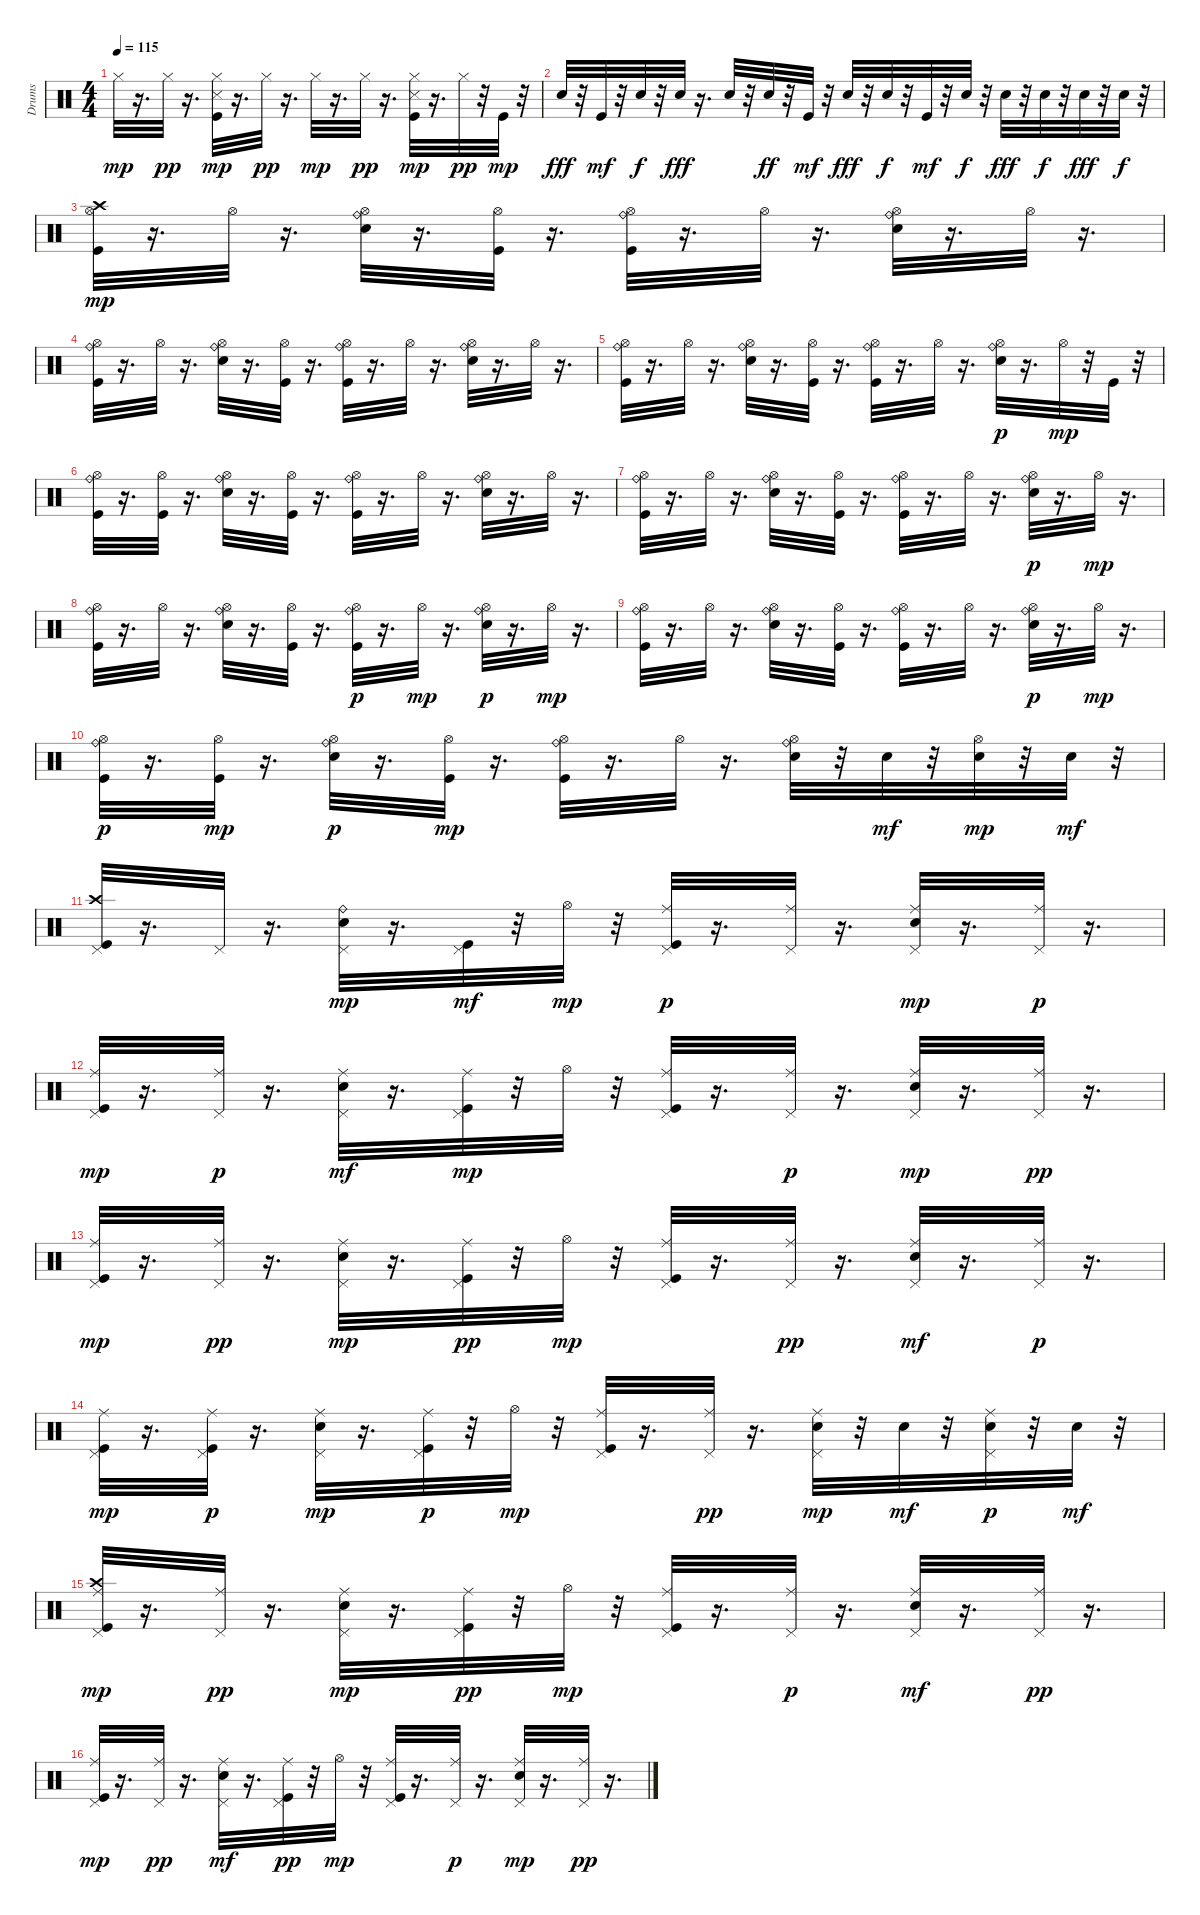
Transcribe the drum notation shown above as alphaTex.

\track ("Drums" "Drums") {instrument percussion}
\staff {score}
\articulation defaults
\ts (4 4)
\tempo 115
\clef neutral
\ks c "Hi-Hat (closed)".32{dy mp}
r.16{d} "Hi-Hat (closed)".32{dy pp} r.16{d} ("Kick (hit)" "Snare (side stick) 3" "Hi-Hat (closed)").32{dy mp} r.16{d} "Hi-Hat (closed)".32{dy pp} r.16{d} "Hi-Hat (closed)".32{dy mp} r.16{d} "Hi-Hat (closed)".32{dy pp} r.16{d} ("Kick (hit)" "Snare (side stick) 3" "Hi-Hat (closed)").32{dy mp} r.16{d} "Hi-Hat (closed)".32{dy pp} r.32 "Kick (hit)".32{dy mp} r.32 |
"Electric Snare (hit)".32{dy fff} r.32 "Kick (hit)".32{dy mf} r.32 "Electric Snare (hit)".32{dy f} r.32 "Electric Snare (hit)".32{dy fff} r.16{d} "Electric Snare (hit)".32 r.32 "Electric Snare (hit)".32{dy ff} r.32 "Kick (hit)".32{dy mf} r.32 "Electric Snare (hit)".32{dy fff} r.32 "Electric Snare (hit)".32{dy f} r.32 "Kick (hit)".32{dy mf} r.32 "Electric Snare (hit)".32{dy f} r.32 "Electric Snare (hit)".32{dy fff} r.32 "Electric Snare (hit)".32{dy f} r.32 "Electric Snare (hit)".32{dy fff} r.32 "Electric Snare (hit)".32{dy f} r.32 |
("Kick (hit)" "Hi-Hat (open)" "Crash high (hit)").32{dy mp} r.16{d} "Hi-Hat (open)".32 r.16{d} ("Electric Snare (hit)" "Hi-Hat (open)" "Ride (bell)").32 r.16{d} ("Kick (hit)" "Hi-Hat (open)").32 r.16{d} ("Kick (hit)" "Hi-Hat (open)" "Ride (bell)").32 r.16{d} "Hi-Hat (open)".32 r.16{d} ("Electric Snare (hit)" "Hi-Hat (open)" "Ride (bell)").32 r.16{d} "Hi-Hat (open)".32 r.16{d} |
("Kick (hit)" "Hi-Hat (open)" "Ride (bell)").32 r.16{d} "Hi-Hat (open)".32 r.16{d} ("Electric Snare (hit)" "Hi-Hat (open)" "Ride (bell)").32 r.16{d} ("Kick (hit)" "Hi-Hat (open)").32 r.16{d} ("Kick (hit)" "Hi-Hat (open)" "Ride (bell)").32 r.16{d} "Hi-Hat (open)".32 r.16{d} ("Electric Snare (hit)" "Hi-Hat (open)" "Ride (bell)").32 r.16{d} "Hi-Hat (open)".32 r.16{d} |
("Kick (hit)" "Hi-Hat (open)" "Ride (bell)").32 r.16{d} "Hi-Hat (open)".32 r.16{d} ("Electric Snare (hit)" "Hi-Hat (open)" "Ride (bell)").32 r.16{d} ("Kick (hit)" "Hi-Hat (open)").32 r.16{d} ("Kick (hit)" "Hi-Hat (open)" "Ride (bell)").32 r.16{d} "Hi-Hat (open)".32 r.16{d} ("Electric Snare (hit)" "Hi-Hat (open)" "Ride (bell)").32{dy p} r.16{d} "Hi-Hat (open)".32{dy mp} r.32 "Kick (hit)".32 r.32 |
("Kick (hit)" "Hi-Hat (open)" "Ride (bell)").32 r.16{d} ("Kick (hit)" "Hi-Hat (open)").32 r.16{d} ("Electric Snare (hit)" "Hi-Hat (open)" "Ride (bell)").32 r.16{d} ("Kick (hit)" "Hi-Hat (open)").32 r.16{d} ("Kick (hit)" "Hi-Hat (open)" "Ride (bell)").32 r.16{d} "Hi-Hat (open)".32 r.16{d} ("Electric Snare (hit)" "Hi-Hat (open)" "Ride (bell)").32 r.16{d} "Hi-Hat (open)".32 r.16{d} |
("Kick (hit)" "Hi-Hat (open)" "Ride (bell)").32 r.16{d} "Hi-Hat (open)".32 r.16{d} ("Electric Snare (hit)" "Hi-Hat (open)" "Ride (bell)").32 r.16{d} ("Kick (hit)" "Hi-Hat (open)").32 r.16{d} ("Kick (hit)" "Hi-Hat (open)" "Ride (bell)").32 r.16{d} "Hi-Hat (open)".32 r.16{d} ("Electric Snare (hit)" "Hi-Hat (open)" "Ride (bell)").32{dy p} r.16{d} "Hi-Hat (open)".32{dy mp} r.16{d} |
("Kick (hit)" "Hi-Hat (open)" "Ride (bell)").32 r.16{d} "Hi-Hat (open)".32 r.16{d} ("Electric Snare (hit)" "Hi-Hat (open)" "Ride (bell)").32 r.16{d} ("Kick (hit)" "Hi-Hat (open)").32 r.16{d} ("Kick (hit)" "Hi-Hat (open)" "Ride (bell)").32{dy p} r.16{d} "Hi-Hat (open)".32{dy mp} r.16{d} ("Electric Snare (hit)" "Hi-Hat (open)" "Ride (bell)").32{dy p} r.16{d} "Hi-Hat (open)".32{dy mp} r.16{d} |
("Kick (hit)" "Hi-Hat (open)" "Ride (bell)").32 r.16{d} "Hi-Hat (open)".32 r.16{d} ("Electric Snare (hit)" "Hi-Hat (open)" "Ride (bell)").32 r.16{d} ("Kick (hit)" "Hi-Hat (open)").32 r.16{d} ("Kick (hit)" "Hi-Hat (open)" "Ride (bell)").32 r.16{d} "Hi-Hat (open)".32 r.16{d} ("Electric Snare (hit)" "Hi-Hat (open)" "Ride (bell)").32{dy p} r.16{d} "Hi-Hat (open)".32{dy mp} r.16{d} |
("Kick (hit)" "Hi-Hat (open)" "Ride (bell)").32{dy p} r.16{d} ("Kick (hit)" "Hi-Hat (open)").32{dy mp} r.16{d} ("Electric Snare (hit)" "Hi-Hat (open)" "Ride (bell)").32{dy p} r.16{d} ("Kick (hit)" "Hi-Hat (open)").32{dy mp} r.16{d} ("Kick (hit)" "Hi-Hat (open)" "Ride (bell)").32 r.16{d} "Hi-Hat (open)".32 r.16{d} ("Electric Snare (hit)" "Hi-Hat (open)" "Ride (bell)").32 r.32 "Electric Snare (hit)".32{dy mf} r.32 ("Electric Snare (hit)" "Hi-Hat (open)").32{dy mp} r.32 "Electric Snare (hit)".32{dy mf} r.32 |
("Kick (hit)" "Pedal Hi-Hat (hit)" "Crash high (hit)").32 r.16{d} "Pedal Hi-Hat (hit)".32 r.16{d} ("Electric Snare (hit)" "Pedal Hi-Hat (hit)" "Ride (bell)").32{dy mp} r.16{d} ("Kick (hit)" "Pedal Hi-Hat (hit)").32{dy mf} r.32 "Hi-Hat (open)".32{dy mp} r.32 ("Kick (hit)" "Pedal Hi-Hat (hit)" "Ride (middle)").32{dy p} r.16{d} ("Pedal Hi-Hat (hit)" "Ride (middle)").32 r.16{d} ("Electric Snare (hit)" "Pedal Hi-Hat (hit)" "Ride (middle)").32{dy mp} r.16{d} ("Pedal Hi-Hat (hit)" "Ride (middle)").32{dy p} r.16{d} |
("Kick (hit)" "Pedal Hi-Hat (hit)" "Ride (middle)").32{dy mp} r.16{d} ("Pedal Hi-Hat (hit)" "Ride (middle)").32{dy p} r.16{d} ("Electric Snare (hit)" "Pedal Hi-Hat (hit)" "Ride (middle)").32{dy mf} r.16{d} ("Kick (hit)" "Pedal Hi-Hat (hit)" "Ride (middle)").32{dy mp} r.32 "Hi-Hat (open)".32 r.32 ("Kick (hit)" "Pedal Hi-Hat (hit)" "Ride (middle)").32 r.16{d} ("Pedal Hi-Hat (hit)" "Ride (middle)").32{dy p} r.16{d} ("Electric Snare (hit)" "Pedal Hi-Hat (hit)" "Ride (middle)").32{dy mp} r.16{d} ("Pedal Hi-Hat (hit)" "Ride (middle)").32{dy pp} r.16{d} |
("Kick (hit)" "Pedal Hi-Hat (hit)" "Ride (middle)").32{dy mp} r.16{d} ("Pedal Hi-Hat (hit)" "Ride (middle)").32{dy pp} r.16{d} ("Electric Snare (hit)" "Pedal Hi-Hat (hit)" "Ride (middle)").32{dy mp} r.16{d} ("Kick (hit)" "Pedal Hi-Hat (hit)" "Ride (middle)").32{dy pp} r.32 "Hi-Hat (open)".32{dy mp} r.32 ("Kick (hit)" "Pedal Hi-Hat (hit)" "Ride (middle)").32 r.16{d} ("Pedal Hi-Hat (hit)" "Ride (middle)").32{dy pp} r.16{d} ("Electric Snare (hit)" "Pedal Hi-Hat (hit)" "Ride (middle)").32{dy mf} r.16{d} ("Pedal Hi-Hat (hit)" "Ride (middle)").32{dy p} r.16{d} |
("Kick (hit)" "Pedal Hi-Hat (hit)" "Ride (middle)").32{dy mp} r.16{d} ("Kick (hit)" "Pedal Hi-Hat (hit)" "Ride (middle)").32{dy p} r.16{d} ("Electric Snare (hit)" "Pedal Hi-Hat (hit)" "Ride (middle)").32{dy mp} r.16{d} ("Kick (hit)" "Pedal Hi-Hat (hit)" "Ride (middle)").32{dy p} r.32 "Hi-Hat (open)".32{dy mp} r.32 ("Kick (hit)" "Pedal Hi-Hat (hit)" "Ride (middle)").32 r.16{d} ("Pedal Hi-Hat (hit)" "Ride (middle)").32{dy pp} r.16{d} ("Electric Snare (hit)" "Pedal Hi-Hat (hit)" "Ride (middle)").32{dy mp} r.32 "Electric Snare (hit)".32{dy mf} r.32 ("Electric Snare (hit)" "Pedal Hi-Hat (hit)" "Ride (middle)").32{dy p} r.32 "Electric Snare (hit)".32{dy mf} r.32 |
("Kick (hit)" "Pedal Hi-Hat (hit)" "Crash high (hit)" "Ride (middle)").32{dy mp} r.16{d} ("Pedal Hi-Hat (hit)" "Ride (middle)").32{dy pp} r.16{d} ("Electric Snare (hit)" "Pedal Hi-Hat (hit)" "Ride (middle)").32{dy mp} r.16{d} ("Kick (hit)" "Pedal Hi-Hat (hit)" "Ride (middle)").32{dy pp} r.32 "Hi-Hat (open)".32{dy mp} r.32 ("Kick (hit)" "Pedal Hi-Hat (hit)" "Ride (middle)").32 r.16{d} ("Pedal Hi-Hat (hit)" "Ride (middle)").32{dy p} r.16{d} ("Electric Snare (hit)" "Pedal Hi-Hat (hit)" "Ride (middle)").32{dy mf} r.16{d} ("Pedal Hi-Hat (hit)" "Ride (middle)").32{dy pp} r.16{d} |
("Kick (hit)" "Pedal Hi-Hat (hit)" "Ride (middle)").32{dy mp} r.16{d} ("Pedal Hi-Hat (hit)" "Ride (middle)").32{dy pp} r.16{d} ("Electric Snare (hit)" "Pedal Hi-Hat (hit)" "Ride (middle)").32{dy mf} r.16{d} ("Kick (hit)" "Pedal Hi-Hat (hit)" "Ride (middle)").32{dy pp} r.32 "Hi-Hat (open)".32{dy mp} r.32 ("Kick (hit)" "Pedal Hi-Hat (hit)" "Ride (middle)").32 r.16{d} ("Pedal Hi-Hat (hit)" "Ride (middle)").32{dy p} r.16{d} ("Electric Snare (hit)" "Pedal Hi-Hat (hit)" "Ride (middle)").32{dy mp} r.16{d} ("Pedal Hi-Hat (hit)" "Ride (middle)").32{dy pp} r.16{d}
